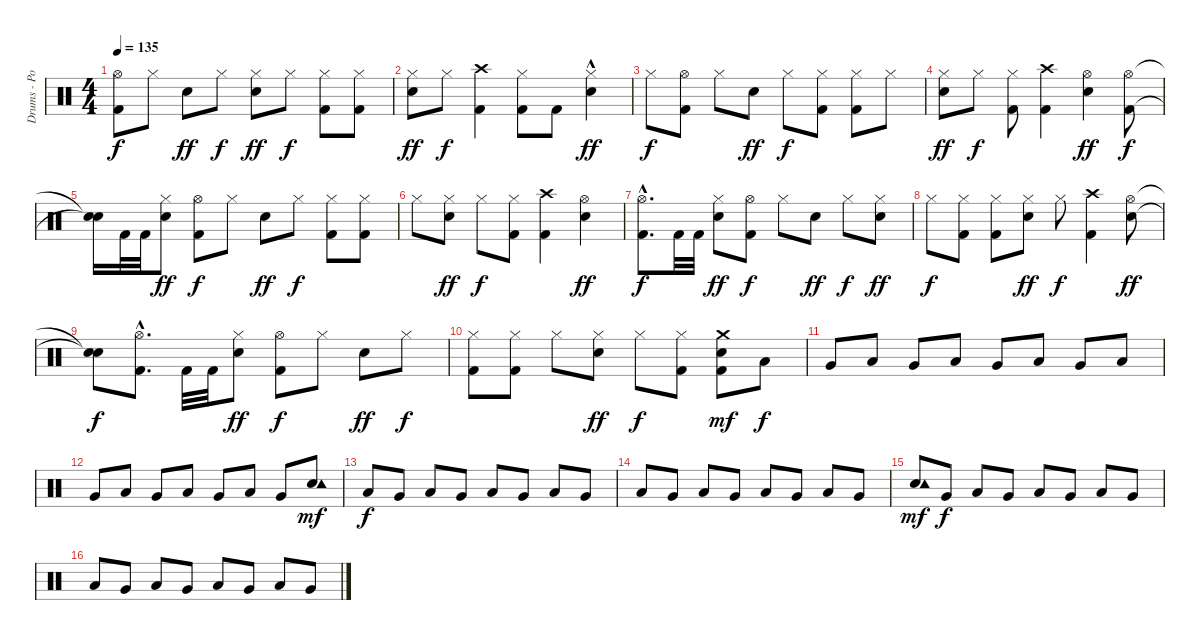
\track ("Drums - Portnoy" "Drums - Po") {instrument percussion}
\staff {score}
\articulation defaults
\ts (4 4)
\tempo 135
\clef neutral
\ks c
("Kick (hit) 2" "Hi-Hat (open)").8{dy f} "Hi-Hat (closed)".8 "Electric Snare (hit)".8{dy ff} "Hi-Hat (closed)".8{dy f} ("Hi-Hat (closed)" "Electric Snare (hit)").8{dy ff} "Hi-Hat (closed)".8{dy f} ("Hi-Hat (closed)" "Kick (hit) 2").8 ("Hi-Hat (closed)" "Kick (hit) 2").8 |
("Hi-Hat (closed)" "Electric Snare (hit)").8{dy ff} "Hi-Hat (closed)".8{dy f} ("Crash high (hit)" "Kick (hit) 2").4 ("Hi-Hat (closed)" "Kick (hit) 2").8 "Kick (hit) 2".8 ("Hi-Hat (closed)" "Electric Snare (hit)"{hac}).4{dy ff} |
"Hi-Hat (closed)".8{dy f} ("Kick (hit) 2" "Hi-Hat (open)").8 "Hi-Hat (closed)".8 "Electric Snare (hit)".8{dy ff} "Hi-Hat (closed)".8{dy f} ("Hi-Hat (closed)" "Kick (hit) 2").8 ("Hi-Hat (closed)" "Kick (hit) 2").8 "Hi-Hat (closed)".8 |
("Hi-Hat (closed)" "Electric Snare (hit)").8{dy ff} "Hi-Hat (closed)".8{dy f} ("Hi-Hat (closed)" "Kick (hit) 2").8 ("Kick (hit) 2" "Crash high (hit)").4 ("Hi-Hat (open)" "Electric Snare (hit)").4{dy ff} ("Kick (hit) 2" "Hi-Hat (open)").8{dy f} |
("Snare (hit)"{t} "Snare (hit)"{t}).16 "Kick (hit) 2".32 "Kick (hit) 2".32 ("Hi-Hat (closed)" "Electric Snare (hit)").8{dy ff} ("Kick (hit) 2" "Hi-Hat (open)").8{dy f} "Hi-Hat (closed)".8 "Electric Snare (hit)".8{dy ff} "Hi-Hat (closed)".8{dy f} ("Kick (hit) 2" "Hi-Hat (closed)").8 ("Kick (hit) 2" "Hi-Hat (closed)").8 |
"Hi-Hat (closed)".8 ("Hi-Hat (closed)" "Electric Snare (hit)").8{dy ff} "Hi-Hat (closed)".8{dy f} ("Kick (hit) 2" "Hi-Hat (closed)").8 ("Kick (hit) 2" "Crash high (hit)").4 ("Hi-Hat (open)" "Electric Snare (hit)").4{dy ff} |
("Kick (hit) 2"{hac} "Hi-Hat (open)").8{d dy f} "Kick (hit) 2".32 "Kick (hit) 2".32 ("Hi-Hat (closed)" "Electric Snare (hit)").8{dy ff} ("Kick (hit) 2" "Hi-Hat (open)").8{dy f} "Hi-Hat (closed)".8 "Electric Snare (hit)".8{dy ff} "Hi-Hat (closed)".8{dy f} ("Hi-Hat (closed)" "Electric Snare (hit)").8{dy ff} |
"Hi-Hat (closed)".8{dy f} ("Hi-Hat (closed)" "Kick (hit) 2").8 ("Hi-Hat (closed)" "Kick (hit) 2").8 ("Hi-Hat (closed)" "Electric Snare (hit)").8{dy ff} "Hi-Hat (closed)".8{dy f} ("Crash high (hit)" "Kick (hit) 2").4 ("Hi-Hat (open)" "Electric Snare (hit)").8{dy ff} |
("Snare (hit)"{t} "Snare (hit)"{t}).8{dy f} ("Kick (hit) 2"{hac} "Hi-Hat (open)").8{d} "Kick (hit) 2".32 "Kick (hit) 2".32 ("Hi-Hat (closed)" "Electric Snare (hit)").8{dy ff} ("Kick (hit) 2" "Hi-Hat (open)").8{dy f} "Hi-Hat (closed)".8 "Electric Snare (hit)".8{dy ff} "Hi-Hat (closed)".8{dy f} |
("Kick (hit) 2" "Hi-Hat (closed)").8 ("Kick (hit) 2" "Hi-Hat (closed)").8 "Hi-Hat (closed)".8 ("Hi-Hat (closed)" "Electric Snare (hit)").8{dy ff} "Hi-Hat (closed)".8{dy f} ("Kick (hit) 2" "Hi-Hat (closed)").8 ("Kick (hit) 2" "Electric Snare (hit)" "Crash medium (hit)").8{dy mf} "Low Floor Tom (hit)".8{dy f} |
"Very Low Tom (hit)".8 "Low Floor Tom (hit)".8 "Very Low Tom (hit)".8 "Low Floor Tom (hit)".8 "Very Low Tom (hit)".8 "Low Floor Tom (hit)".8 "Very Low Tom (hit)".8 "Low Floor Tom (hit)".8 |
"Very Low Tom (hit)".8 "Low Floor Tom (hit)".8 "Very Low Tom (hit)".8 "Low Floor Tom (hit)".8 "Very Low Tom (hit)".8 "Low Floor Tom (hit)".8 "Very Low Tom (hit)".8 ("Electric Snare (hit)" "Tambourine (hit)").8{dy mf} |
"Low Floor Tom (hit)".8{dy f} "Very Low Tom (hit)".8 "Low Floor Tom (hit)".8 "Very Low Tom (hit)".8 "Low Floor Tom (hit)".8 "Very Low Tom (hit)".8 "Low Floor Tom (hit)".8 "Very Low Tom (hit)".8 |
"Low Floor Tom (hit)".8 "Very Low Tom (hit)".8 "Low Floor Tom (hit)".8 "Very Low Tom (hit)".8 "Low Floor Tom (hit)".8 "Very Low Tom (hit)".8 "Low Floor Tom (hit)".8 "Very Low Tom (hit)".8 |
("Electric Snare (hit)" "Tambourine (hit)").8{dy mf} "Very Low Tom (hit)".8{dy f} "Low Floor Tom (hit)".8 "Very Low Tom (hit)".8 "Low Floor Tom (hit)".8 "Very Low Tom (hit)".8 "Low Floor Tom (hit)".8 "Very Low Tom (hit)".8 |
"Low Floor Tom (hit)".8 "Very Low Tom (hit)".8 "Low Floor Tom (hit)".8 "Very Low Tom (hit)".8 "Low Floor Tom (hit)".8 "Very Low Tom (hit)".8 "Low Floor Tom (hit)".8 "Very Low Tom (hit)".8
